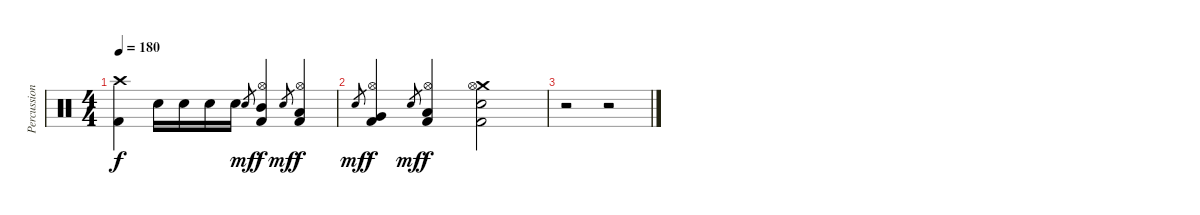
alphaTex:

\track ("Percussion" "Percussion") {instrument percussion}
\staff {score}
\articulation defaults
\ts (4 4)
\tempo 180
\clef neutral
\ks c
("Crash high (hit)" "Kick (hit) 2").4{dy f} "Snare (hit) 2".16 "Snare (hit) 2".16 "Snare (hit) 2".16 "Snare (hit) 2".16 "Snare (hit)".8{gr dy mf} ("Hi-Hat (open)" "Mid Tom (hit)" "Kick (hit) 2").4{dy f} "Snare (hit)".8{gr dy mf} ("Hi-Hat (open)" "Low Tom (hit)" "Kick (hit) 2").4{dy f} |
"Snare (hit)".8{gr dy mf} ("Hi-Hat (open)" "Very Low Tom (hit)" "Kick (hit) 2").4{dy f} "Snare (hit)".8{gr dy mf} ("Hi-Hat (open)" "Low Floor Tom (hit)" "Kick (hit) 2").4{dy f} ("Crash medium (hit)" "Hi-Hat (open)" "Snare (hit) 2" "Kick (hit) 2").2 |
r.2 r.2
